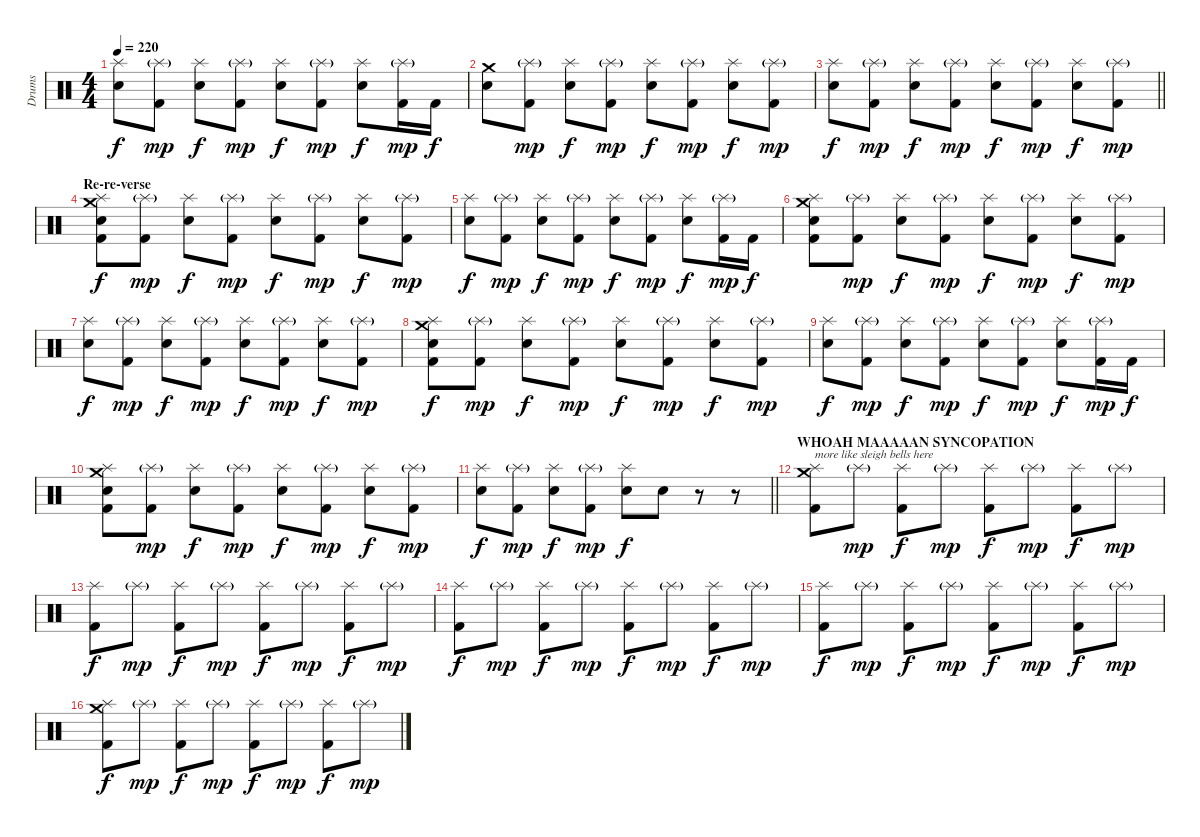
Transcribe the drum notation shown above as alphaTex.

\track ("Drums" "Drums") {instrument percussion}
\staff {score}
\articulation defaults
\ts (4 4)
\tempo 220
\clef neutral
\ks c
("Splash (hit)" "Electric Snare (hit)").8{dy f} ("Splash (hit)"{g} "Kick (hit) 2").8{dy mp} ("Splash (hit)" "Electric Snare (hit)").8{dy f} ("Splash (hit)"{g} "Kick (hit) 2").8{dy mp} ("Splash (hit)" "Electric Snare (hit)").8{dy f} ("Splash (hit)"{g} "Kick (hit) 2").8{dy mp} ("Splash (hit)" "Electric Snare (hit)").8{dy f} ("Splash (hit)"{g} "Kick (hit) 2").16{dy mp} "Kick (hit) 2".16{dy f} |
("Crash medium (hit)" "Electric Snare (hit)").8 ("Splash (hit)"{g} "Kick (hit) 2").8{dy mp} ("Splash (hit)" "Electric Snare (hit)").8{dy f} ("Splash (hit)"{g} "Kick (hit) 2").8{dy mp} ("Splash (hit)" "Electric Snare (hit)").8{dy f} ("Splash (hit)"{g} "Kick (hit) 2").8{dy mp} ("Splash (hit)" "Electric Snare (hit)").8{dy f} ("Splash (hit)"{g} "Kick (hit) 2").8{dy mp} |
\barLineRight lightlight
("Splash (hit)" "Electric Snare (hit)").8{dy f} ("Splash (hit)"{g} "Kick (hit) 2").8{dy mp} ("Splash (hit)" "Electric Snare (hit)").8{dy f} ("Splash (hit)"{g} "Kick (hit) 2").8{dy mp} ("Splash (hit)" "Electric Snare (hit)").8{dy f} ("Splash (hit)"{g} "Kick (hit) 2").8{dy mp} ("Splash (hit)" "Electric Snare (hit)").8{dy f} ("Splash (hit)"{g} "Kick (hit) 2").8{dy mp} |
\section ("" "Re-re-verse")
("Crash medium (hit)" "Splash (hit)" "Electric Snare (hit)" "Kick (hit) 2").8{dy f} ("Splash (hit)"{g} "Kick (hit) 2").8{dy mp} ("Splash (hit)" "Electric Snare (hit)").8{dy f} ("Splash (hit)"{g} "Kick (hit) 2").8{dy mp} ("Splash (hit)" "Electric Snare (hit)").8{dy f} ("Splash (hit)"{g} "Kick (hit) 2").8{dy mp} ("Splash (hit)" "Electric Snare (hit)").8{dy f} ("Splash (hit)"{g} "Kick (hit) 2").8{dy mp} |
("Splash (hit)" "Electric Snare (hit)").8{dy f} ("Splash (hit)"{g} "Kick (hit) 2").8{dy mp} ("Splash (hit)" "Electric Snare (hit)").8{dy f} ("Splash (hit)"{g} "Kick (hit) 2").8{dy mp} ("Splash (hit)" "Electric Snare (hit)").8{dy f} ("Splash (hit)"{g} "Kick (hit) 2").8{dy mp} ("Splash (hit)" "Electric Snare (hit)").8{dy f} ("Splash (hit)"{g} "Kick (hit) 2").16{dy mp} "Kick (hit) 2".16{dy f} |
("Crash medium (hit)" "Splash (hit)" "Electric Snare (hit)" "Kick (hit) 2").8 ("Splash (hit)"{g} "Kick (hit) 2").8{dy mp} ("Splash (hit)" "Electric Snare (hit)").8{dy f} ("Splash (hit)"{g} "Kick (hit) 2").8{dy mp} ("Splash (hit)" "Electric Snare (hit)").8{dy f} ("Splash (hit)"{g} "Kick (hit) 2").8{dy mp} ("Splash (hit)" "Electric Snare (hit)").8{dy f} ("Splash (hit)"{g} "Kick (hit) 2").8{dy mp} |
("Splash (hit)" "Electric Snare (hit)").8{dy f} ("Splash (hit)"{g} "Kick (hit) 2").8{dy mp} ("Splash (hit)" "Electric Snare (hit)").8{dy f} ("Splash (hit)"{g} "Kick (hit) 2").8{dy mp} ("Splash (hit)" "Electric Snare (hit)").8{dy f} ("Splash (hit)"{g} "Kick (hit) 2").8{dy mp} ("Splash (hit)" "Electric Snare (hit)").8{dy f} ("Splash (hit)"{g} "Kick (hit) 2").8{dy mp} |
("Crash medium (hit)" "Splash (hit)" "Electric Snare (hit)" "Kick (hit) 2").8{dy f} ("Splash (hit)"{g} "Kick (hit) 2").8{dy mp} ("Splash (hit)" "Electric Snare (hit)").8{dy f} ("Splash (hit)"{g} "Kick (hit) 2").8{dy mp} ("Splash (hit)" "Electric Snare (hit)").8{dy f} ("Splash (hit)"{g} "Kick (hit) 2").8{dy mp} ("Splash (hit)" "Electric Snare (hit)").8{dy f} ("Splash (hit)"{g} "Kick (hit) 2").8{dy mp} |
("Splash (hit)" "Electric Snare (hit)").8{dy f} ("Splash (hit)"{g} "Kick (hit) 2").8{dy mp} ("Splash (hit)" "Electric Snare (hit)").8{dy f} ("Splash (hit)"{g} "Kick (hit) 2").8{dy mp} ("Splash (hit)" "Electric Snare (hit)").8{dy f} ("Splash (hit)"{g} "Kick (hit) 2").8{dy mp} ("Splash (hit)" "Electric Snare (hit)").8{dy f} ("Splash (hit)"{g} "Kick (hit) 2").16{dy mp} "Kick (hit) 2".16{dy f} |
("Crash medium (hit)" "Splash (hit)" "Electric Snare (hit)" "Kick (hit) 2").8 ("Splash (hit)"{g} "Kick (hit) 2").8{dy mp} ("Splash (hit)" "Electric Snare (hit)").8{dy f} ("Splash (hit)"{g} "Kick (hit) 2").8{dy mp} ("Splash (hit)" "Electric Snare (hit)").8{dy f} ("Splash (hit)"{g} "Kick (hit) 2").8{dy mp} ("Splash (hit)" "Electric Snare (hit)").8{dy f} ("Splash (hit)"{g} "Kick (hit) 2").8{dy mp} |
\barLineRight lightlight
("Splash (hit)" "Electric Snare (hit)").8{dy f} ("Splash (hit)"{g} "Kick (hit) 2").8{dy mp} ("Splash (hit)" "Electric Snare (hit)").8{dy f} ("Splash (hit)"{g} "Kick (hit) 2").8{dy mp} ("Splash (hit)" "Electric Snare (hit)").8{dy f} "Electric Snare (hit)".8 r.8 r.8 |
\section ("" "WHOAH MAAAAAN SYNCOPATION")
("Crash medium (hit)" "Splash (hit)" "Kick (hit) 2").8{txt "more like sleigh bells here"} "Splash (hit)"{g}.8{dy mp} ("Splash (hit)" "Kick (hit) 2").8{dy f} "Splash (hit)"{g}.8{dy mp} ("Splash (hit)" "Kick (hit) 2").8{dy f} "Splash (hit)"{g}.8{dy mp} ("Splash (hit)" "Kick (hit) 2").8{dy f} "Splash (hit)"{g}.8{dy mp} |
("Splash (hit)" "Kick (hit) 2").8{dy f} "Splash (hit)"{g}.8{dy mp} ("Splash (hit)" "Kick (hit) 2").8{dy f} "Splash (hit)"{g}.8{dy mp} ("Splash (hit)" "Kick (hit) 2").8{dy f} "Splash (hit)"{g}.8{dy mp} ("Splash (hit)" "Kick (hit) 2").8{dy f} "Splash (hit)"{g}.8{dy mp} |
("Splash (hit)" "Kick (hit) 2").8{dy f} "Splash (hit)"{g}.8{dy mp} ("Splash (hit)" "Kick (hit) 2").8{dy f} "Splash (hit)"{g}.8{dy mp} ("Splash (hit)" "Kick (hit) 2").8{dy f} "Splash (hit)"{g}.8{dy mp} ("Splash (hit)" "Kick (hit) 2").8{dy f} "Splash (hit)"{g}.8{dy mp} |
("Splash (hit)" "Kick (hit) 2").8{dy f} "Splash (hit)"{g}.8{dy mp} ("Splash (hit)" "Kick (hit) 2").8{dy f} "Splash (hit)"{g}.8{dy mp} ("Splash (hit)" "Kick (hit) 2").8{dy f} "Splash (hit)"{g}.8{dy mp} ("Splash (hit)" "Kick (hit) 2").8{dy f} "Splash (hit)"{g}.8{dy mp} |
("Crash medium (hit)" "Splash (hit)" "Kick (hit) 2").8{dy f} "Splash (hit)"{g}.8{dy mp} ("Splash (hit)" "Kick (hit) 2").8{dy f} "Splash (hit)"{g}.8{dy mp} ("Splash (hit)" "Kick (hit) 2").8{dy f} "Splash (hit)"{g}.8{dy mp} ("Splash (hit)" "Kick (hit) 2").8{dy f} "Splash (hit)"{g}.8{dy mp}
